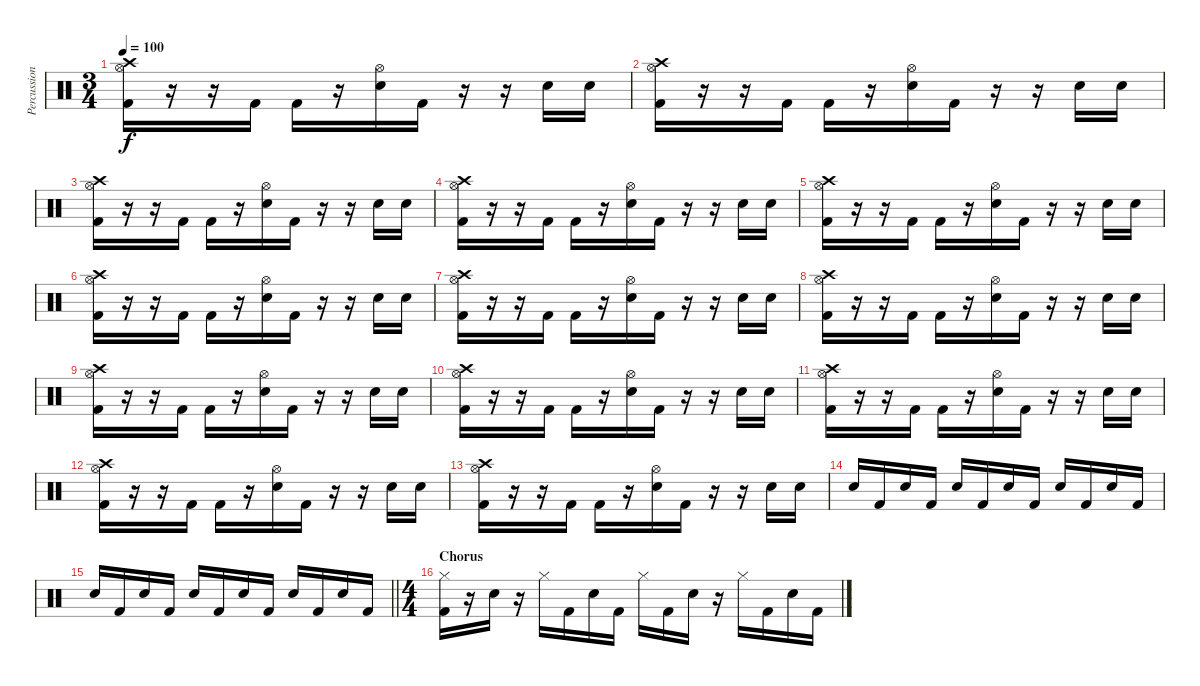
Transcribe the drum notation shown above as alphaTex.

\track ("Percussion" "Percussion") {instrument percussion}
\staff {score}
\articulation defaults
\ts (3 4)
\tempo 100
\clef neutral
\ks c
("Crash high (hit)" "Hi-Hat (open)" "Kick (hit) 2").16{dy f} r.16 r.16 "Kick (hit) 2".16 "Kick (hit) 2".16 r.16 ("Hi-Hat (open)" "Snare (hit) 2").16 "Kick (hit) 2".16 r.16 r.16 "Snare (hit) 2".16 "Snare (hit) 2".16 |
("Crash high (hit)" "Hi-Hat (open)" "Kick (hit) 2").16 r.16 r.16 "Kick (hit) 2".16 "Kick (hit) 2".16 r.16 ("Hi-Hat (open)" "Snare (hit) 2").16 "Kick (hit) 2".16 r.16 r.16 "Snare (hit) 2".16 "Snare (hit) 2".16 |
("Crash high (hit)" "Hi-Hat (open)" "Kick (hit) 2").16 r.16 r.16 "Kick (hit) 2".16 "Kick (hit) 2".16 r.16 ("Hi-Hat (open)" "Snare (hit) 2").16 "Kick (hit) 2".16 r.16 r.16 "Snare (hit) 2".16 "Snare (hit) 2".16 |
("Crash high (hit)" "Hi-Hat (open)" "Kick (hit) 2").16 r.16 r.16 "Kick (hit) 2".16 "Kick (hit) 2".16 r.16 ("Hi-Hat (open)" "Snare (hit) 2").16 "Kick (hit) 2".16 r.16 r.16 "Snare (hit) 2".16 "Snare (hit) 2".16 |
("Crash high (hit)" "Hi-Hat (open)" "Kick (hit) 2").16 r.16 r.16 "Kick (hit) 2".16 "Kick (hit) 2".16 r.16 ("Hi-Hat (open)" "Snare (hit) 2").16 "Kick (hit) 2".16 r.16 r.16 "Snare (hit) 2".16 "Snare (hit) 2".16 |
("Crash high (hit)" "Hi-Hat (open)" "Kick (hit) 2").16 r.16 r.16 "Kick (hit) 2".16 "Kick (hit) 2".16 r.16 ("Hi-Hat (open)" "Snare (hit) 2").16 "Kick (hit) 2".16 r.16 r.16 "Snare (hit) 2".16 "Snare (hit) 2".16 |
("Crash high (hit)" "Hi-Hat (open)" "Kick (hit) 2").16 r.16 r.16 "Kick (hit) 2".16 "Kick (hit) 2".16 r.16 ("Hi-Hat (open)" "Snare (hit) 2").16 "Kick (hit) 2".16 r.16 r.16 "Snare (hit) 2".16 "Snare (hit) 2".16 |
("Crash high (hit)" "Hi-Hat (open)" "Kick (hit) 2").16 r.16 r.16 "Kick (hit) 2".16 "Kick (hit) 2".16 r.16 ("Hi-Hat (open)" "Snare (hit) 2").16 "Kick (hit) 2".16 r.16 r.16 "Snare (hit) 2".16 "Snare (hit) 2".16 |
("Crash high (hit)" "Hi-Hat (open)" "Kick (hit) 2").16 r.16 r.16 "Kick (hit) 2".16 "Kick (hit) 2".16 r.16 ("Hi-Hat (open)" "Snare (hit) 2").16 "Kick (hit) 2".16 r.16 r.16 "Snare (hit) 2".16 "Snare (hit) 2".16 |
("Crash high (hit)" "Hi-Hat (open)" "Kick (hit) 2").16 r.16 r.16 "Kick (hit) 2".16 "Kick (hit) 2".16 r.16 ("Hi-Hat (open)" "Snare (hit) 2").16 "Kick (hit) 2".16 r.16 r.16 "Snare (hit) 2".16 "Snare (hit) 2".16 |
("Crash high (hit)" "Hi-Hat (open)" "Kick (hit) 2").16 r.16 r.16 "Kick (hit) 2".16 "Kick (hit) 2".16 r.16 ("Hi-Hat (open)" "Snare (hit) 2").16 "Kick (hit) 2".16 r.16 r.16 "Snare (hit) 2".16 "Snare (hit) 2".16 |
("Crash high (hit)" "Hi-Hat (open)" "Kick (hit) 2").16 r.16 r.16 "Kick (hit) 2".16 "Kick (hit) 2".16 r.16 ("Hi-Hat (open)" "Snare (hit) 2").16 "Kick (hit) 2".16 r.16 r.16 "Snare (hit) 2".16 "Snare (hit) 2".16 |
("Crash high (hit)" "Hi-Hat (open)" "Kick (hit) 2").16 r.16 r.16 "Kick (hit) 2".16 "Kick (hit) 2".16 r.16 ("Hi-Hat (open)" "Snare (hit) 2").16 "Kick (hit) 2".16 r.16 r.16 "Snare (hit) 2".16 "Snare (hit) 2".16 |
"Snare (hit) 2".16 "Kick (hit) 2".16 "Snare (hit) 2".16 "Kick (hit) 2".16 "Snare (hit) 2".16 "Kick (hit) 2".16 "Snare (hit) 2".16 "Kick (hit) 2".16 "Snare (hit) 2".16 "Kick (hit) 2".16 "Snare (hit) 2".16 "Kick (hit) 2".16 |
\barLineRight lightlight "Snare (hit) 2".16 "Kick (hit) 2".16 "Snare (hit) 2".16 "Kick (hit) 2".16 "Snare (hit) 2".16 "Kick (hit) 2".16 "Snare (hit) 2".16 "Kick (hit) 2".16 "Snare (hit) 2".16 "Kick (hit) 2".16 "Snare (hit) 2".16 "Kick (hit) 2".16
|
\ts (4 4)
\section ("" "Chorus")
("Hi-Hat (closed)" "Kick (hit) 2").16 r.16 "Snare (hit) 2".16 r.16 "Hi-Hat (closed)".16 "Kick (hit) 2".16 "Snare (hit) 2".16 "Kick (hit) 2".16 "Hi-Hat (closed)".16 "Kick (hit) 2".16 "Snare (hit) 2".16 r.16 "Hi-Hat (closed)".16 "Kick (hit) 2".16 "Snare (hit) 2".16 "Kick (hit) 2".16
